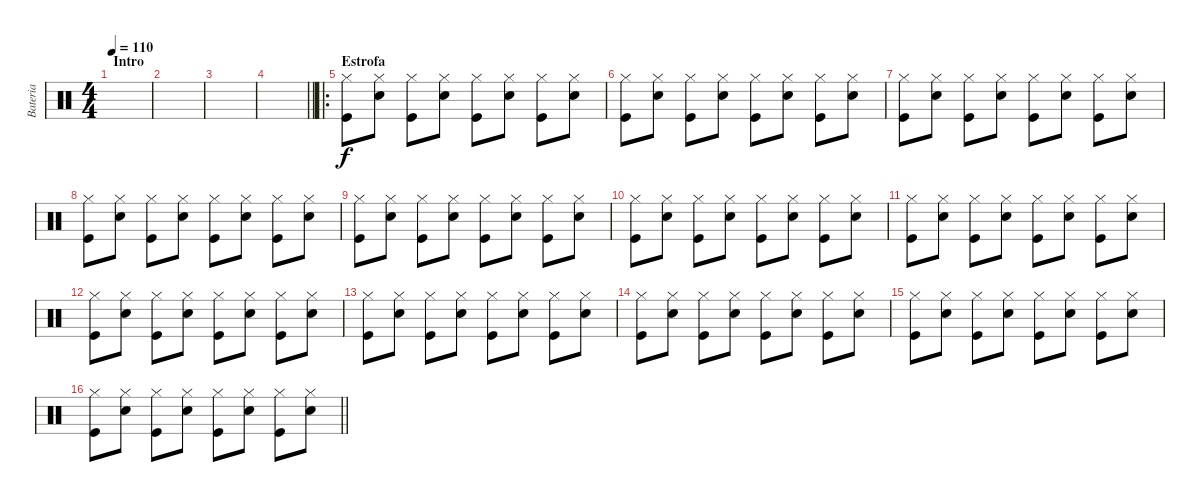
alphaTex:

\track ("Bateria" "Bateria") {instrument percussion}
\staff {score}
\articulation defaults
\ts (4 4)
\section ("" "Intro")
\tempo 110
\clef neutral
\ks c
|
|
|
\barLineRight lightlight
|
\ro
\section ("" "Estrofa")
("Hi-Hat (closed)" "Kick (hit)").8 ("Hi-Hat (closed)" "Snare (hit) 2").8 ("Hi-Hat (closed)" "Kick (hit)").8 ("Hi-Hat (closed)" "Snare (hit) 2").8 ("Hi-Hat (closed)" "Kick (hit)").8 ("Hi-Hat (closed)" "Snare (hit) 2").8 ("Hi-Hat (closed)" "Kick (hit)").8 ("Hi-Hat (closed)" "Snare (hit) 2").8 |
("Hi-Hat (closed)" "Kick (hit)").8 ("Hi-Hat (closed)" "Snare (hit) 2").8 ("Hi-Hat (closed)" "Kick (hit)").8 ("Hi-Hat (closed)" "Snare (hit) 2").8 ("Hi-Hat (closed)" "Kick (hit)").8 ("Hi-Hat (closed)" "Snare (hit) 2").8 ("Hi-Hat (closed)" "Kick (hit)").8 ("Hi-Hat (closed)" "Snare (hit) 2").8 |
("Hi-Hat (closed)" "Kick (hit)").8 ("Hi-Hat (closed)" "Snare (hit) 2").8 ("Hi-Hat (closed)" "Kick (hit)").8 ("Hi-Hat (closed)" "Snare (hit) 2").8 ("Hi-Hat (closed)" "Kick (hit)").8 ("Hi-Hat (closed)" "Snare (hit) 2").8 ("Hi-Hat (closed)" "Kick (hit)").8 ("Hi-Hat (closed)" "Snare (hit) 2").8 |
("Hi-Hat (closed)" "Kick (hit)").8 ("Hi-Hat (closed)" "Snare (hit) 2").8 ("Hi-Hat (closed)" "Kick (hit)").8 ("Hi-Hat (closed)" "Snare (hit) 2").8 ("Hi-Hat (closed)" "Kick (hit)").8 ("Hi-Hat (closed)" "Snare (hit) 2").8 ("Hi-Hat (closed)" "Kick (hit)").8 ("Hi-Hat (closed)" "Snare (hit) 2").8 |
("Hi-Hat (closed)" "Kick (hit)").8 ("Hi-Hat (closed)" "Snare (hit) 2").8 ("Hi-Hat (closed)" "Kick (hit)").8 ("Hi-Hat (closed)" "Snare (hit) 2").8 ("Hi-Hat (closed)" "Kick (hit)").8 ("Hi-Hat (closed)" "Snare (hit) 2").8 ("Hi-Hat (closed)" "Kick (hit)").8 ("Hi-Hat (closed)" "Snare (hit) 2").8 |
("Hi-Hat (closed)" "Kick (hit)").8 ("Hi-Hat (closed)" "Snare (hit) 2").8 ("Hi-Hat (closed)" "Kick (hit)").8 ("Hi-Hat (closed)" "Snare (hit) 2").8 ("Hi-Hat (closed)" "Kick (hit)").8 ("Hi-Hat (closed)" "Snare (hit) 2").8 ("Hi-Hat (closed)" "Kick (hit)").8 ("Hi-Hat (closed)" "Snare (hit) 2").8 |
("Hi-Hat (closed)" "Kick (hit)").8 ("Hi-Hat (closed)" "Snare (hit) 2").8 ("Hi-Hat (closed)" "Kick (hit)").8 ("Hi-Hat (closed)" "Snare (hit) 2").8 ("Hi-Hat (closed)" "Kick (hit)").8 ("Hi-Hat (closed)" "Snare (hit) 2").8 ("Hi-Hat (closed)" "Kick (hit)").8 ("Hi-Hat (closed)" "Snare (hit) 2").8 |
("Hi-Hat (closed)" "Kick (hit)").8 ("Hi-Hat (closed)" "Snare (hit) 2").8 ("Hi-Hat (closed)" "Kick (hit)").8 ("Hi-Hat (closed)" "Snare (hit) 2").8 ("Hi-Hat (closed)" "Kick (hit)").8 ("Hi-Hat (closed)" "Snare (hit) 2").8 ("Hi-Hat (closed)" "Kick (hit)").8 ("Hi-Hat (closed)" "Snare (hit) 2").8 |
("Hi-Hat (closed)" "Kick (hit)").8 ("Hi-Hat (closed)" "Snare (hit) 2").8 ("Hi-Hat (closed)" "Kick (hit)").8 ("Hi-Hat (closed)" "Snare (hit) 2").8 ("Hi-Hat (closed)" "Kick (hit)").8 ("Hi-Hat (closed)" "Snare (hit) 2").8 ("Hi-Hat (closed)" "Kick (hit)").8 ("Hi-Hat (closed)" "Snare (hit) 2").8 |
("Hi-Hat (closed)" "Kick (hit)").8 ("Hi-Hat (closed)" "Snare (hit) 2").8 ("Hi-Hat (closed)" "Kick (hit)").8 ("Hi-Hat (closed)" "Snare (hit) 2").8 ("Hi-Hat (closed)" "Kick (hit)").8 ("Hi-Hat (closed)" "Snare (hit) 2").8 ("Hi-Hat (closed)" "Kick (hit)").8 ("Hi-Hat (closed)" "Snare (hit) 2").8 |
("Hi-Hat (closed)" "Kick (hit)").8 ("Hi-Hat (closed)" "Snare (hit) 2").8 ("Hi-Hat (closed)" "Kick (hit)").8 ("Hi-Hat (closed)" "Snare (hit) 2").8 ("Hi-Hat (closed)" "Kick (hit)").8 ("Hi-Hat (closed)" "Snare (hit) 2").8 ("Hi-Hat (closed)" "Kick (hit)").8 ("Hi-Hat (closed)" "Snare (hit) 2").8 |
\barLineRight lightlight
("Hi-Hat (closed)" "Kick (hit)").8 ("Hi-Hat (closed)" "Snare (hit) 2").8 ("Hi-Hat (closed)" "Kick (hit)").8 ("Hi-Hat (closed)" "Snare (hit) 2").8 ("Hi-Hat (closed)" "Kick (hit)").8 ("Hi-Hat (closed)" "Snare (hit) 2").8 ("Hi-Hat (closed)" "Kick (hit)").8 ("Hi-Hat (closed)" "Snare (hit) 2").8
